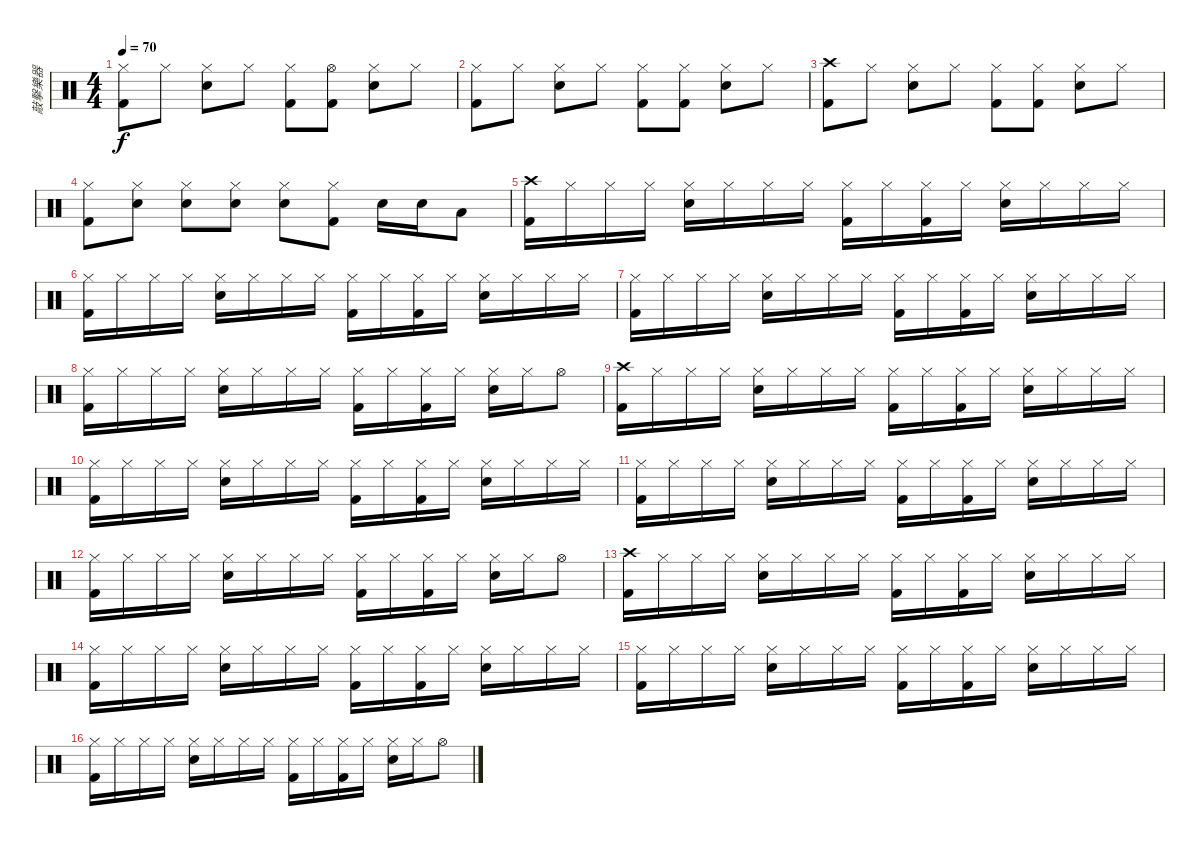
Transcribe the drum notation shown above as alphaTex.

\track ("敲擊樂器" "敲擊樂器") {instrument percussion}
\staff {score}
\articulation defaults
\ts (4 4)
\tempo 70
\clef neutral
\ks c
("Hi-Hat (closed)" "Kick (hit) 2").8{dy f} "Hi-Hat (closed)".8 ("Hi-Hat (closed)" "Snare (hit) 2").8 "Hi-Hat (closed)".8 ("Hi-Hat (closed)" "Kick (hit) 2").8 ("Hi-Hat (open)" "Kick (hit) 2").8 ("Hi-Hat (closed)" "Snare (hit) 2").8 "Hi-Hat (closed)".8 |
("Hi-Hat (closed)" "Kick (hit) 2").8 "Hi-Hat (closed)".8 ("Hi-Hat (closed)" "Snare (hit) 2").8 "Hi-Hat (closed)".8 ("Hi-Hat (closed)" "Kick (hit) 2").8 ("Hi-Hat (closed)" "Kick (hit) 2").8 ("Hi-Hat (closed)" "Snare (hit) 2").8 "Hi-Hat (closed)".8 |
("Crash high (hit)" "Kick (hit) 2").8 "Hi-Hat (closed)".8 ("Hi-Hat (closed)" "Snare (hit) 2").8 "Hi-Hat (closed)".8 ("Hi-Hat (closed)" "Kick (hit) 2").8 ("Hi-Hat (closed)" "Kick (hit) 2").8 ("Hi-Hat (closed)" "Snare (hit) 2").8 "Hi-Hat (closed)".8 |
("Hi-Hat (closed)" "Kick (hit) 2").8 ("Hi-Hat (closed)" "Snare (hit) 2").8 ("Hi-Hat (closed)" "Snare (hit) 2").8 ("Hi-Hat (closed)" "Snare (hit) 2").8 ("Hi-Hat (closed)" "Snare (hit) 2").8 ("Hi-Hat (closed)" "Kick (hit) 2").8 "Snare (hit) 2".16 "Snare (hit) 2".16 "Low Tom (hit)".8 |
("Crash high (hit)" "Kick (hit) 2").16 "Hi-Hat (closed)".16 "Hi-Hat (closed)".16 "Hi-Hat (closed)".16 ("Hi-Hat (closed)" "Snare (hit) 2").16 "Hi-Hat (closed)".16 "Hi-Hat (closed)".16 "Hi-Hat (closed)".16 ("Hi-Hat (closed)" "Kick (hit) 2").16 "Hi-Hat (closed)".16 ("Hi-Hat (closed)" "Kick (hit) 2").16 "Hi-Hat (closed)".16 ("Hi-Hat (closed)" "Snare (hit) 2").16 "Hi-Hat (closed)".16 "Hi-Hat (closed)".16 "Hi-Hat (closed)".16 |
("Hi-Hat (closed)" "Kick (hit) 2").16 "Hi-Hat (closed)".16 "Hi-Hat (closed)".16 "Hi-Hat (closed)".16 ("Hi-Hat (closed)" "Snare (hit) 2").16 "Hi-Hat (closed)".16 "Hi-Hat (closed)".16 "Hi-Hat (closed)".16 ("Hi-Hat (closed)" "Kick (hit) 2").16 "Hi-Hat (closed)".16 ("Hi-Hat (closed)" "Kick (hit) 2").16 "Hi-Hat (closed)".16 ("Hi-Hat (closed)" "Snare (hit) 2").16 "Hi-Hat (closed)".16 "Hi-Hat (closed)".16 "Hi-Hat (closed)".16 |
("Hi-Hat (closed)" "Kick (hit) 2").16 "Hi-Hat (closed)".16 "Hi-Hat (closed)".16 "Hi-Hat (closed)".16 ("Hi-Hat (closed)" "Snare (hit) 2").16 "Hi-Hat (closed)".16 "Hi-Hat (closed)".16 "Hi-Hat (closed)".16 ("Hi-Hat (closed)" "Kick (hit) 2").16 "Hi-Hat (closed)".16 ("Hi-Hat (closed)" "Kick (hit) 2").16 "Hi-Hat (closed)".16 ("Hi-Hat (closed)" "Snare (hit) 2").16 "Hi-Hat (closed)".16 "Hi-Hat (closed)".16 "Hi-Hat (closed)".16 |
("Hi-Hat (closed)" "Kick (hit) 2").16 "Hi-Hat (closed)".16 "Hi-Hat (closed)".16 "Hi-Hat (closed)".16 ("Hi-Hat (closed)" "Snare (hit) 2").16 "Hi-Hat (closed)".16 "Hi-Hat (closed)".16 "Hi-Hat (closed)".16 ("Hi-Hat (closed)" "Kick (hit) 2").16 "Hi-Hat (closed)".16 ("Hi-Hat (closed)" "Kick (hit) 2").16 "Hi-Hat (closed)".16 ("Hi-Hat (closed)" "Snare (hit) 2").16 "Hi-Hat (closed)".16 "Hi-Hat (open)".8 |
("Crash high (hit)" "Kick (hit) 2").16 "Hi-Hat (closed)".16 "Hi-Hat (closed)".16 "Hi-Hat (closed)".16 ("Hi-Hat (closed)" "Snare (hit) 2").16 "Hi-Hat (closed)".16 "Hi-Hat (closed)".16 "Hi-Hat (closed)".16 ("Hi-Hat (closed)" "Kick (hit) 2").16 "Hi-Hat (closed)".16 ("Hi-Hat (closed)" "Kick (hit) 2").16 "Hi-Hat (closed)".16 ("Hi-Hat (closed)" "Snare (hit) 2").16 "Hi-Hat (closed)".16 "Hi-Hat (closed)".16 "Hi-Hat (closed)".16 |
("Hi-Hat (closed)" "Kick (hit) 2").16 "Hi-Hat (closed)".16 "Hi-Hat (closed)".16 "Hi-Hat (closed)".16 ("Hi-Hat (closed)" "Snare (hit) 2").16 "Hi-Hat (closed)".16 "Hi-Hat (closed)".16 "Hi-Hat (closed)".16 ("Hi-Hat (closed)" "Kick (hit) 2").16 "Hi-Hat (closed)".16 ("Hi-Hat (closed)" "Kick (hit) 2").16 "Hi-Hat (closed)".16 ("Hi-Hat (closed)" "Snare (hit) 2").16 "Hi-Hat (closed)".16 "Hi-Hat (closed)".16 "Hi-Hat (closed)".16 |
("Hi-Hat (closed)" "Kick (hit) 2").16 "Hi-Hat (closed)".16 "Hi-Hat (closed)".16 "Hi-Hat (closed)".16 ("Hi-Hat (closed)" "Snare (hit) 2").16 "Hi-Hat (closed)".16 "Hi-Hat (closed)".16 "Hi-Hat (closed)".16 ("Hi-Hat (closed)" "Kick (hit) 2").16 "Hi-Hat (closed)".16 ("Hi-Hat (closed)" "Kick (hit) 2").16 "Hi-Hat (closed)".16 ("Hi-Hat (closed)" "Snare (hit) 2").16 "Hi-Hat (closed)".16 "Hi-Hat (closed)".16 "Hi-Hat (closed)".16 |
("Hi-Hat (closed)" "Kick (hit) 2").16 "Hi-Hat (closed)".16 "Hi-Hat (closed)".16 "Hi-Hat (closed)".16 ("Hi-Hat (closed)" "Snare (hit) 2").16 "Hi-Hat (closed)".16 "Hi-Hat (closed)".16 "Hi-Hat (closed)".16 ("Hi-Hat (closed)" "Kick (hit) 2").16 "Hi-Hat (closed)".16 ("Hi-Hat (closed)" "Kick (hit) 2").16 "Hi-Hat (closed)".16 ("Hi-Hat (closed)" "Snare (hit) 2").16 "Hi-Hat (closed)".16 "Hi-Hat (open)".8 |
("Crash high (hit)" "Kick (hit) 2").16 "Hi-Hat (closed)".16 "Hi-Hat (closed)".16 "Hi-Hat (closed)".16 ("Hi-Hat (closed)" "Snare (hit) 2").16 "Hi-Hat (closed)".16 "Hi-Hat (closed)".16 "Hi-Hat (closed)".16 ("Hi-Hat (closed)" "Kick (hit) 2").16 "Hi-Hat (closed)".16 ("Hi-Hat (closed)" "Kick (hit) 2").16 "Hi-Hat (closed)".16 ("Hi-Hat (closed)" "Snare (hit) 2").16 "Hi-Hat (closed)".16 "Hi-Hat (closed)".16 "Hi-Hat (closed)".16 |
("Hi-Hat (closed)" "Kick (hit) 2").16 "Hi-Hat (closed)".16 "Hi-Hat (closed)".16 "Hi-Hat (closed)".16 ("Hi-Hat (closed)" "Snare (hit) 2").16 "Hi-Hat (closed)".16 "Hi-Hat (closed)".16 "Hi-Hat (closed)".16 ("Hi-Hat (closed)" "Kick (hit) 2").16 "Hi-Hat (closed)".16 ("Hi-Hat (closed)" "Kick (hit) 2").16 "Hi-Hat (closed)".16 ("Hi-Hat (closed)" "Snare (hit) 2").16 "Hi-Hat (closed)".16 "Hi-Hat (closed)".16 "Hi-Hat (closed)".16 |
("Hi-Hat (closed)" "Kick (hit) 2").16 "Hi-Hat (closed)".16 "Hi-Hat (closed)".16 "Hi-Hat (closed)".16 ("Hi-Hat (closed)" "Snare (hit) 2").16 "Hi-Hat (closed)".16 "Hi-Hat (closed)".16 "Hi-Hat (closed)".16 ("Hi-Hat (closed)" "Kick (hit) 2").16 "Hi-Hat (closed)".16 ("Hi-Hat (closed)" "Kick (hit) 2").16 "Hi-Hat (closed)".16 ("Hi-Hat (closed)" "Snare (hit) 2").16 "Hi-Hat (closed)".16 "Hi-Hat (closed)".16 "Hi-Hat (closed)".16 |
("Hi-Hat (closed)" "Kick (hit) 2").16 "Hi-Hat (closed)".16 "Hi-Hat (closed)".16 "Hi-Hat (closed)".16 ("Hi-Hat (closed)" "Snare (hit) 2").16 "Hi-Hat (closed)".16 "Hi-Hat (closed)".16 "Hi-Hat (closed)".16 ("Hi-Hat (closed)" "Kick (hit) 2").16 "Hi-Hat (closed)".16 ("Hi-Hat (closed)" "Kick (hit) 2").16 "Hi-Hat (closed)".16 ("Hi-Hat (closed)" "Snare (hit) 2").16 "Hi-Hat (closed)".16 "Hi-Hat (open)".8
